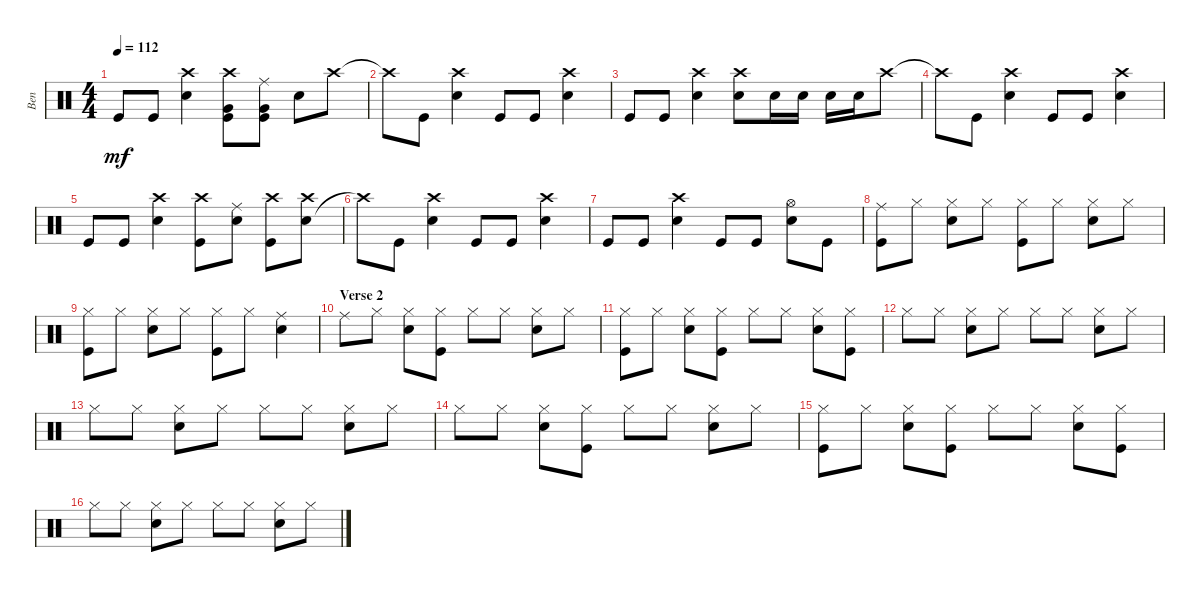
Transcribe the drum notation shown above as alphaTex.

\track ("Ben" "Ben") {instrument percussion}
\staff {score}
\articulation defaults
\ts (4 4)
\tempo 112
\clef neutral
\ks c "Kick (hit)".8{dy mf} "Kick (hit)".8
("Snare (hit) 2" "Crash high (hit)").4 ("Kick (hit)" "Very Low Tom (hit)" "Crash high (hit)").8 ("Kick (hit)" "Very Low Tom (hit)" "Ride (middle)").8 "Snare (hit) 2".8 "Crash high (hit)".8 |
"Crash high (hit)"{t}.8 "Kick (hit)".8 ("Snare (hit) 2" "Crash high (hit)").4 "Kick (hit)".8 "Kick (hit)".8 ("Snare (hit) 2" "Crash high (hit)").4 |
"Kick (hit)".8 "Kick (hit)".8 ("Snare (hit) 2" "Crash high (hit)").4 ("Snare (hit) 2" "Crash high (hit)").8 "Snare (hit) 2".16 "Snare (hit) 2".16 "Snare (hit) 2".16 "Snare (hit) 2".16 "Crash high (hit)".8 |
"Crash high (hit)"{t}.8 "Kick (hit)".8 ("Snare (hit) 2" "Crash high (hit)").4 "Kick (hit)".8 "Kick (hit)".8 ("Snare (hit) 2" "Crash high (hit)").4 |
"Kick (hit)".8 "Kick (hit)".8 ("Snare (hit) 2" "Crash high (hit)").4 ("Kick (hit)" "Crash high (hit)").8 ("Snare (hit) 2" "Ride (middle)").8 ("Kick (hit)" "Crash high (hit)").8 ("Snare (hit) 2" "Crash high (hit)").8 |
"Crash high (hit)"{t}.8 "Kick (hit)".8 ("Snare (hit) 2" "Crash high (hit)").4 "Kick (hit)".8 "Kick (hit)".8 ("Snare (hit) 2" "Crash high (hit)").4 |
"Kick (hit)".8 "Kick (hit)".8 ("Snare (hit) 2" "Crash high (hit)").4 "Kick (hit)".8 "Kick (hit)".8 ("Snare (hit) 2" "Hi-Hat (open)").8 "Kick (hit)".8 |
("Ride (middle)" "Kick (hit)").8 "Hi-Hat (closed)".8 ("Hi-Hat (closed)" "Snare (hit) 2").8 "Hi-Hat (closed)".8 ("Hi-Hat (closed)" "Kick (hit)").8 "Hi-Hat (closed)".8 ("Hi-Hat (closed)" "Snare (hit) 2").8 "Hi-Hat (closed)".8 |
("Hi-Hat (closed)" "Kick (hit)").8 "Hi-Hat (closed)".8 ("Hi-Hat (closed)" "Snare (hit) 2").8 "Hi-Hat (closed)".8 ("Hi-Hat (closed)" "Kick (hit)").8 "Hi-Hat (closed)".8 ("Snare (hit) 2" "Ride (middle)").4 |
\section ("" "Verse 2")
"Ride (middle)".8 "Hi-Hat (closed)".8 ("Hi-Hat (closed)" "Snare (hit) 2").8 ("Hi-Hat (closed)" "Kick (hit)").8 "Hi-Hat (closed)".8 "Hi-Hat (closed)".8 ("Hi-Hat (closed)" "Snare (hit) 2").8 "Hi-Hat (closed)".8 |
("Hi-Hat (closed)" "Kick (hit)").8 "Hi-Hat (closed)".8 ("Hi-Hat (closed)" "Snare (hit) 2").8 ("Hi-Hat (closed)" "Kick (hit)").8 "Hi-Hat (closed)".8 "Hi-Hat (closed)".8 ("Hi-Hat (closed)" "Snare (hit) 2").8 ("Hi-Hat (closed)" "Kick (hit)").8 |
"Hi-Hat (closed)".8 "Hi-Hat (closed)".8 ("Hi-Hat (closed)" "Snare (hit) 2").8 "Hi-Hat (closed)".8 "Hi-Hat (closed)".8 "Hi-Hat (closed)".8 ("Hi-Hat (closed)" "Snare (hit) 2").8 "Hi-Hat (closed)".8 |
"Hi-Hat (closed)".8 "Hi-Hat (closed)".8 ("Hi-Hat (closed)" "Snare (hit) 2").8 "Hi-Hat (closed)".8 "Hi-Hat (closed)".8 "Hi-Hat (closed)".8 ("Hi-Hat (closed)" "Snare (hit) 2").8 "Hi-Hat (closed)".8 |
"Hi-Hat (closed)".8 "Hi-Hat (closed)".8 ("Hi-Hat (closed)" "Snare (hit) 2").8 ("Hi-Hat (closed)" "Kick (hit)").8 "Hi-Hat (closed)".8 "Hi-Hat (closed)".8 ("Hi-Hat (closed)" "Snare (hit) 2").8 "Hi-Hat (closed)".8 |
("Hi-Hat (closed)" "Kick (hit)").8 "Hi-Hat (closed)".8 ("Hi-Hat (closed)" "Snare (hit) 2").8 ("Hi-Hat (closed)" "Kick (hit)").8 "Hi-Hat (closed)".8 "Hi-Hat (closed)".8 ("Hi-Hat (closed)" "Snare (hit) 2").8 ("Hi-Hat (closed)" "Kick (hit)").8 |
"Hi-Hat (closed)".8 "Hi-Hat (closed)".8 ("Hi-Hat (closed)" "Snare (hit) 2").8 "Hi-Hat (closed)".8 "Hi-Hat (closed)".8 "Hi-Hat (closed)".8 ("Hi-Hat (closed)" "Snare (hit) 2").8 "Hi-Hat (closed)".8
